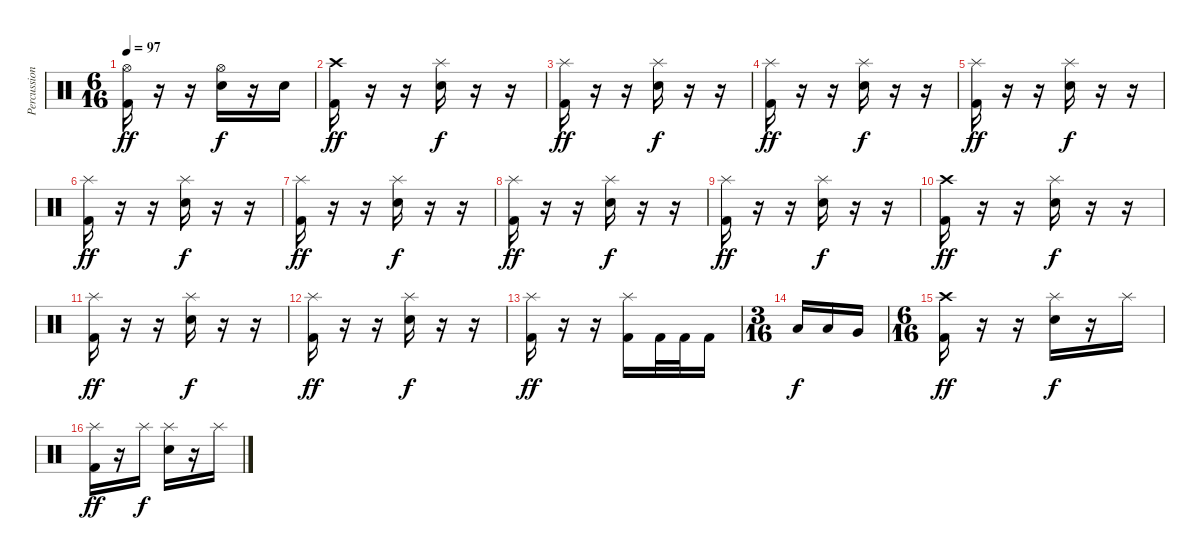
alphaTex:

\track ("Percussion" "Percussion") {instrument percussion}
\staff {score}
\articulation defaults
\ts (6 16)
\tempo 97
\clef neutral
\ks c
("Hi-Hat (open)" "Kick (hit) 2").16{dy ff} r.16 r.16 ("Hi-Hat (open)" "Electric Snare (hit)").16{dy f} r.16 "Electric Snare (hit)".16 |
("Crash high (hit)" "Kick (hit) 2").16{dy ff} r.16 r.16 ("Splash (hit)" "Electric Snare (hit)").16{dy f} r.16 r.16 |
("Splash (hit)" "Kick (hit) 2").16{dy ff} r.16 r.16 ("Splash (hit)" "Electric Snare (hit)").16{dy f} r.16 r.16 |
("Splash (hit)" "Kick (hit) 2").16{dy ff} r.16 r.16 ("Splash (hit)" "Electric Snare (hit)").16{dy f} r.16 r.16 |
("Splash (hit)" "Kick (hit) 2").16{dy ff} r.16 r.16 ("Splash (hit)" "Electric Snare (hit)").16{dy f} r.16 r.16 |
("Splash (hit)" "Kick (hit) 2").16{dy ff} r.16 r.16 ("Splash (hit)" "Electric Snare (hit)").16{dy f} r.16 r.16 |
("Splash (hit)" "Kick (hit) 2").16{dy ff} r.16 r.16 ("Splash (hit)" "Electric Snare (hit)").16{dy f} r.16 r.16 |
("Splash (hit)" "Kick (hit) 2").16{dy ff} r.16 r.16 ("Splash (hit)" "Electric Snare (hit)").16{dy f} r.16 r.16 |
("Splash (hit)" "Kick (hit) 2").16{dy ff} r.16 r.16 ("Splash (hit)" "Electric Snare (hit)").16{dy f} r.16 r.16 |
("Crash high (hit)" "Kick (hit) 2").16{dy ff} r.16 r.16 ("Splash (hit)" "Electric Snare (hit)").16{dy f} r.16 r.16 |
("Splash (hit)" "Kick (hit) 2").16{dy ff} r.16 r.16 ("Splash (hit)" "Electric Snare (hit)").16{dy f} r.16 r.16 |
("Splash (hit)" "Kick (hit) 2").16{dy ff} r.16 r.16 ("Splash (hit)" "Electric Snare (hit)").16{dy f} r.16 r.16 |
("Splash (hit)" "Kick (hit) 2").16{dy ff} r.16 r.16 ("Splash (hit)" "Kick (hit) 2").16 "Kick (hit) 2".32 "Kick (hit) 2".32 "Kick (hit) 2".16 |
\ts (3 16)
"Low Tom (hit)".16{dy f} "Low Tom (hit)".16 "Very Low Tom (hit)".16 |
\ts (6 16)
("Crash high (hit)" "Kick (hit) 2").16{dy ff} r.16 r.16 ("Splash (hit)" "Electric Snare (hit)").16{dy f} r.16 "Splash (hit)".16 |
("Splash (hit)" "Kick (hit) 2").16{dy ff} r.16 "Splash (hit)".16{dy f} ("Splash (hit)" "Electric Snare (hit)").16 r.16 "Splash (hit)".16
